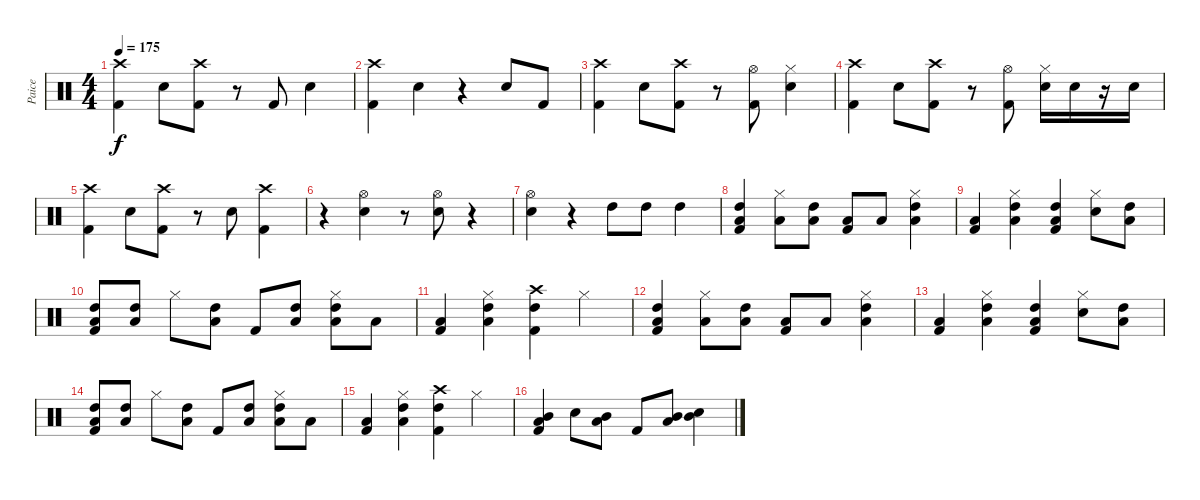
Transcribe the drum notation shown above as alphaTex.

\track ("Paice" "Paice") {instrument percussion}
\staff {score}
\articulation defaults
\ts (4 4)
\tempo 175
\clef neutral
\ks c
("Crash high (hit)" "Kick (hit) 2").4{dy f} "Electric Snare (hit)".8 ("Crash high (hit)" "Kick (hit) 2").8 r.8 "Kick (hit) 2".8 "Electric Snare (hit)".4 |
("Crash high (hit)" "Kick (hit) 2").4 "Electric Snare (hit)".4 r.4 "Electric Snare (hit)".8 "Kick (hit) 2".8 |
("Crash high (hit)" "Kick (hit) 2").4 "Electric Snare (hit)".8 ("Crash high (hit)" "Kick (hit) 2").8 r.8 ("Hi-Hat (open)" "Kick (hit) 2").8 ("Hi-Hat (closed)" "Electric Snare (hit)").4 |
("Crash high (hit)" "Kick (hit) 2").4 "Electric Snare (hit)".8 ("Crash high (hit)" "Kick (hit) 2").8 r.8 ("Hi-Hat (open)" "Kick (hit) 2").8 ("Hi-Hat (closed)" "Electric Snare (hit)").16 "Electric Snare (hit)".16 r.16 "Electric Snare (hit)".16 |
("Crash high (hit)" "Kick (hit) 2").4 "Electric Snare (hit)".8 ("Crash high (hit)" "Kick (hit) 2").8 r.8 "Electric Snare (hit)".8 ("Crash high (hit)" "Kick (hit) 2").4 |
r.4 ("Hi-Hat (open)" "Electric Snare (hit)").4 r.8 ("Hi-Hat (open)" "Electric Snare (hit)").8 r.4 |
("Hi-Hat (open)" "Electric Snare (hit)").4 r.4 "High Tom (hit)".8 "High Tom (hit)".8 "High Tom (hit)".4 |
("Low Tom (hit)" "High Tom (hit)" "Kick (hit) 2").4 ("Hi-Hat (closed)" "Low Tom (hit)").8 ("Low Tom (hit)" "High Tom (hit)").8 ("Low Tom (hit)" "Kick (hit) 2").8 "Low Tom (hit)".8 ("Hi-Hat (closed)" "Low Tom (hit)" "High Tom (hit)").4 |
("Low Tom (hit)" "Kick (hit) 2").4 ("Hi-Hat (closed)" "Low Tom (hit)" "High Tom (hit)").4 ("Low Tom (hit)" "High Tom (hit)" "Kick (hit) 2").4 ("Hi-Hat (closed)" "Electric Snare (hit)").8 ("Low Tom (hit)" "High Tom (hit)").8 |
("Low Tom (hit)" "High Tom (hit)" "Kick (hit) 2").8 ("Low Tom (hit)" "High Tom (hit)").8 "Hi-Hat (closed)".8 ("Low Tom (hit)" "High Tom (hit)").8 "Kick (hit) 2".8 ("Low Tom (hit)" "High Tom (hit)").8 ("Hi-Hat (closed)" "Low Tom (hit)" "High Tom (hit)").8 "Low Tom (hit)".8 |
("Low Tom (hit)" "Kick (hit) 2").4 ("Hi-Hat (closed)" "Low Tom (hit)" "High Tom (hit)").4 ("Crash high (hit)" "High Tom (hit)" "Kick (hit) 2").4 "Hi-Hat (closed)".4 |
("Low Tom (hit)" "High Tom (hit)" "Kick (hit) 2").4 ("Hi-Hat (closed)" "Low Tom (hit)").8 ("Low Tom (hit)" "High Tom (hit)").8 ("Low Tom (hit)" "Kick (hit) 2").8 "Low Tom (hit)".8 ("Hi-Hat (closed)" "Low Tom (hit)" "High Tom (hit)").4 |
("Low Tom (hit)" "Kick (hit) 2").4 ("Hi-Hat (closed)" "Low Tom (hit)" "High Tom (hit)").4 ("Low Tom (hit)" "High Tom (hit)" "Kick (hit) 2").4 ("Hi-Hat (closed)" "Electric Snare (hit)").8 ("Low Tom (hit)" "High Tom (hit)").8 |
("Low Tom (hit)" "High Tom (hit)" "Kick (hit) 2").8 ("Low Tom (hit)" "High Tom (hit)").8 "Hi-Hat (closed)".8 ("Low Tom (hit)" "High Tom (hit)").8 "Kick (hit) 2".8 ("Low Tom (hit)" "High Tom (hit)").8 ("Hi-Hat (closed)" "Low Tom (hit)" "High Tom (hit)").8 "Low Tom (hit)".8 |
("Low Tom (hit)" "Kick (hit) 2").4 ("Hi-Hat (closed)" "Low Tom (hit)" "High Tom (hit)").4 ("Crash high (hit)" "High Tom (hit)" "Kick (hit) 2").4 "Hi-Hat (closed)".4 |
("Mid Tom (hit)" "Low Tom (hit)" "Kick (hit) 2").4 "Electric Snare (hit)".8 ("Mid Tom (hit)" "Low Tom (hit)").8 "Kick (hit) 2".8 ("Mid Tom (hit)" "Low Tom (hit)").8 ("Mid Tom (hit)" "Electric Snare (hit)").4
